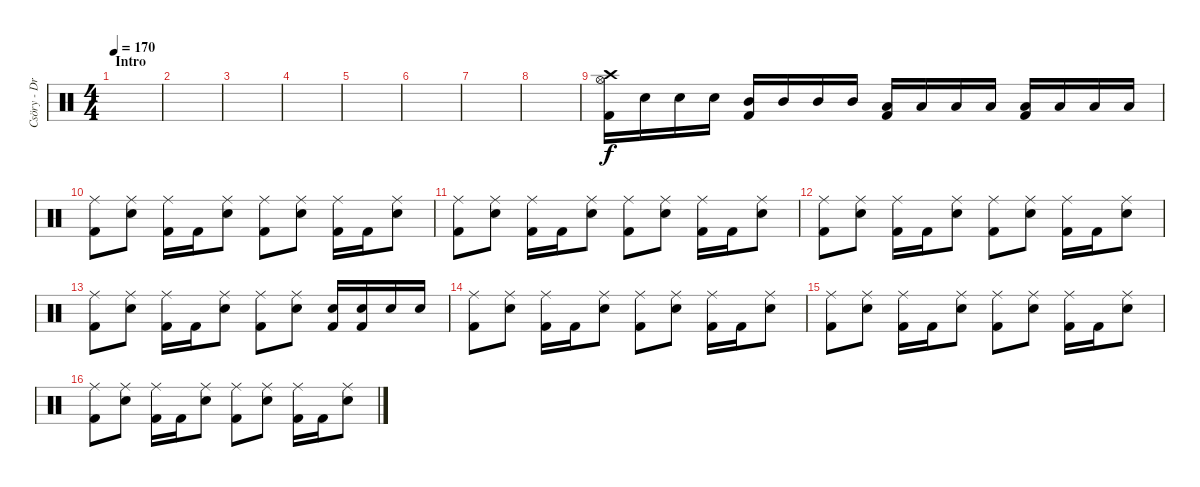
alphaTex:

\track ("Csöry - DrumZ" "Csöry - Dr") {instrument percussion}
\staff {score}
\articulation defaults
\ts (4 4)
\section ("" "Intro")
\tempo 170
\clef neutral
\ks c
|
|
|
|
|
|
|
|
("Crash high (hit)" "Hi-Hat (open)" "Kick (hit) 2").16 "Snare (hit) 2".16 "Snare (hit) 2".16 "Snare (hit) 2".16 ("Mid Tom (hit)" "Kick (hit) 2").16 "Mid Tom (hit)".16 "Mid Tom (hit)".16 "Mid Tom (hit)".16 ("Low Tom (hit)" "Kick (hit) 2").16 "Low Tom (hit)".16 "Low Tom (hit)".16 "Low Tom (hit)".16 ("Low Floor Tom (hit)" "Kick (hit) 2").16 "Low Floor Tom (hit)".16 "Low Floor Tom (hit)".16 "Low Floor Tom (hit)".16 |
("Ride (middle)" "Kick (hit) 2").8 ("Ride (middle)" "Snare (hit) 2").8 ("Ride (middle)" "Kick (hit) 2").16 "Kick (hit) 2".16 ("Ride (middle)" "Snare (hit) 2").8 ("Ride (middle)" "Kick (hit) 2").8 ("Ride (middle)" "Snare (hit) 2").8 ("Ride (middle)" "Kick (hit) 2").16 "Kick (hit) 2".16 ("Ride (middle)" "Snare (hit) 2").8 |
("Ride (middle)" "Kick (hit) 2").8 ("Ride (middle)" "Snare (hit) 2").8 ("Ride (middle)" "Kick (hit) 2").16 "Kick (hit) 2".16 ("Ride (middle)" "Snare (hit) 2").8 ("Ride (middle)" "Kick (hit) 2").8 ("Ride (middle)" "Snare (hit) 2").8 ("Ride (middle)" "Kick (hit) 2").16 "Kick (hit) 2".16 ("Ride (middle)" "Snare (hit) 2").8 |
("Ride (middle)" "Kick (hit) 2").8 ("Ride (middle)" "Snare (hit) 2").8 ("Ride (middle)" "Kick (hit) 2").16 "Kick (hit) 2".16 ("Ride (middle)" "Snare (hit) 2").8 ("Ride (middle)" "Kick (hit) 2").8 ("Ride (middle)" "Snare (hit) 2").8 ("Ride (middle)" "Kick (hit) 2").16 "Kick (hit) 2".16 ("Ride (middle)" "Snare (hit) 2").8 |
("Ride (middle)" "Kick (hit) 2").8 ("Ride (middle)" "Snare (hit) 2").8 ("Ride (middle)" "Kick (hit) 2").16 "Kick (hit) 2".16 ("Ride (middle)" "Snare (hit) 2").8 ("Ride (middle)" "Kick (hit) 2").8 ("Ride (middle)" "Snare (hit) 2").8 ("Snare (hit) 2" "Kick (hit) 2").16 ("Snare (hit) 2" "Kick (hit) 2").16 "Snare (hit) 2".16 "Snare (hit) 2".16 |
("Ride (middle)" "Kick (hit) 2").8 ("Ride (middle)" "Snare (hit) 2").8 ("Ride (middle)" "Kick (hit) 2").16 "Kick (hit) 2".16 ("Ride (middle)" "Snare (hit) 2").8 ("Ride (middle)" "Kick (hit) 2").8 ("Ride (middle)" "Snare (hit) 2").8 ("Ride (middle)" "Kick (hit) 2").16 "Kick (hit) 2".16 ("Ride (middle)" "Snare (hit) 2").8 |
("Ride (middle)" "Kick (hit) 2").8 ("Ride (middle)" "Snare (hit) 2").8 ("Ride (middle)" "Kick (hit) 2").16 "Kick (hit) 2".16 ("Ride (middle)" "Snare (hit) 2").8 ("Ride (middle)" "Kick (hit) 2").8 ("Ride (middle)" "Snare (hit) 2").8 ("Ride (middle)" "Kick (hit) 2").16 "Kick (hit) 2".16 ("Ride (middle)" "Snare (hit) 2").8 |
("Ride (middle)" "Kick (hit) 2").8 ("Ride (middle)" "Snare (hit) 2").8 ("Ride (middle)" "Kick (hit) 2").16 "Kick (hit) 2".16 ("Ride (middle)" "Snare (hit) 2").8 ("Ride (middle)" "Kick (hit) 2").8 ("Ride (middle)" "Snare (hit) 2").8 ("Ride (middle)" "Kick (hit) 2").16 "Kick (hit) 2".16 ("Ride (middle)" "Snare (hit) 2").8
